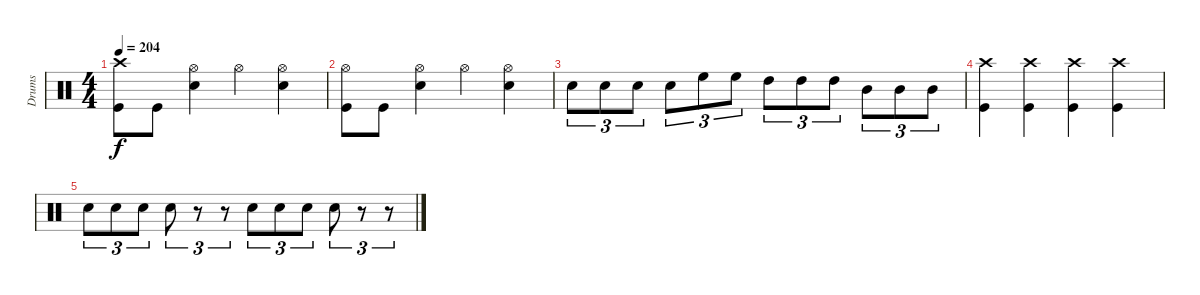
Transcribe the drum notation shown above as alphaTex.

\track ("Drums" "Drums") {instrument percussion}
\staff {score}
\articulation defaults
\ts (4 4)
\tempo 204
\clef neutral
\ks c
("Crash high (hit)" "Kick (hit)").8{dy f} "Kick (hit)".8 ("Hi-Hat (open)" "Snare (hit) 2").4 "Hi-Hat (open)".4 ("Hi-Hat (open)" "Snare (hit) 2").4 |
("Hi-Hat (open)" "Kick (hit)").8 "Kick (hit)".8 ("Hi-Hat (open)" "Snare (hit) 2").4 "Hi-Hat (open)".4 ("Hi-Hat (open)" "Snare (hit) 2").4 |
"Snare (hit) 2".8{tu (3 2)} "Snare (hit) 2".8{tu (3 2)} "Snare (hit) 2".8{tu (3 2)} "Snare (hit) 2".8{tu (3 2)} "High Floor Tom (hit)".8{tu (3 2)} "High Floor Tom (hit)".8{tu (3 2)} "High Tom (hit)".8{tu (3 2)} "High Tom (hit)".8{tu (3 2)} "High Tom (hit)".8{tu (3 2)} "Mid Tom (hit)".8{tu (3 2)} "Mid Tom (hit)".8{tu (3 2)} "Mid Tom (hit)".8{tu (3 2)} |
("Crash high (hit)" "Kick (hit)").4 ("Crash high (hit)" "Kick (hit)").4 ("Crash high (hit)" "Kick (hit)").4 ("Crash high (hit)" "Kick (hit)").4 |
"Snare (hit) 2".8{tu (3 2)} "Snare (hit) 2".8{tu (3 2)} "Snare (hit) 2".8{tu (3 2)} "Snare (hit) 2".8{tu (3 2)} r.8{tu (3 2)} r.8{tu (3 2)} "Snare (hit) 2".8{tu (3 2)} "Snare (hit) 2".8{tu (3 2)} "Snare (hit) 2".8{tu (3 2)} "Snare (hit) 2".8{tu (3 2)} r.8{tu (3 2)} r.8{tu (3 2)}
